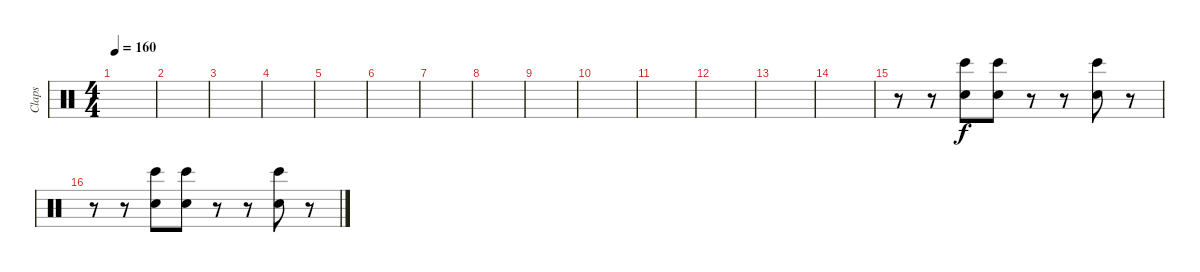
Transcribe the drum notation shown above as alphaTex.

\track ("Claps" "Claps") {instrument percussion}
\staff {score}
\articulation defaults
\ts (4 4)
\tempo 160
\clef neutral
\ks c
|
|
|
|
|
|
|
|
|
|
|
|
|
|
r.8 r.8 ("Hand Clap (hit)" "Bongo High (hit)").8 ("Hand Clap (hit)" "Bongo High (hit)").8 r.8 r.8 ("Hand Clap (hit)" "Bongo High (hit)").8 r.8 |
r.8 r.8 ("Hand Clap (hit)" "Bongo High (hit)").8 ("Hand Clap (hit)" "Bongo High (hit)").8 r.8 r.8 ("Hand Clap (hit)" "Bongo High (hit)").8 r.8
